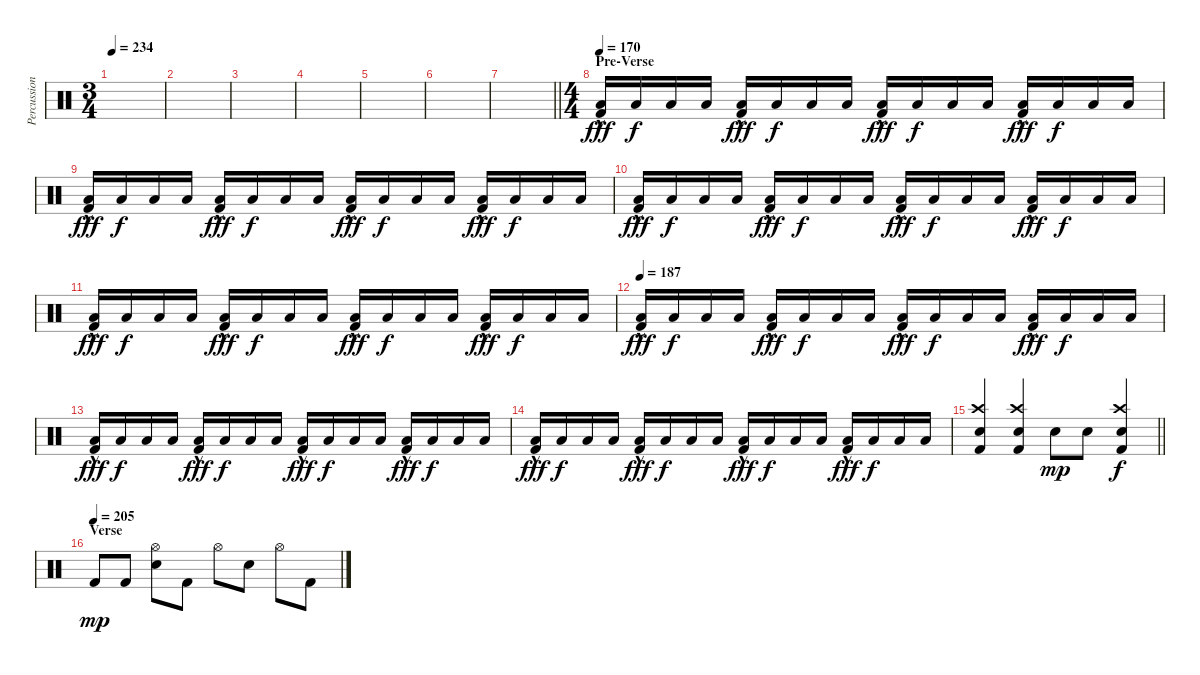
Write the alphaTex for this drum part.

\track ("Percussion" "Percussion") {instrument percussion}
\staff {score}
\articulation defaults
\ts (3 4)
\tempo 234
\clef neutral
\ks c
|
|
|
|
|
|
\barLineRight lightlight
|
\ts (4 4)
\section ("" "Pre-Verse")
\tempo 187
\tempo 170
("Low Tom (hit)"{hac} "Kick (hit) 2").16{dy fff} "Low Tom (hit)".16{dy f} "Low Tom (hit)".16 "Low Tom (hit)".16 ("Low Tom (hit)"{hac} "Kick (hit) 2").16{dy fff} "Low Tom (hit)".16{dy f} "Low Tom (hit)".16 "Low Tom (hit)".16 ("Low Tom (hit)"{hac} "Kick (hit) 2").16{dy fff} "Low Tom (hit)".16{dy f} "Low Tom (hit)".16 "Low Tom (hit)".16 ("Low Tom (hit)"{hac} "Kick (hit) 2").16{dy fff} "Low Tom (hit)".16{dy f} "Low Tom (hit)".16 "Low Tom (hit)".16 |
("Low Tom (hit)"{hac} "Kick (hit) 2").16{dy fff} "Low Tom (hit)".16{dy f} "Low Tom (hit)".16 "Low Tom (hit)".16 ("Low Tom (hit)"{hac} "Kick (hit) 2").16{dy fff} "Low Tom (hit)".16{dy f} "Low Tom (hit)".16 "Low Tom (hit)".16 ("Low Tom (hit)"{hac} "Kick (hit) 2").16{dy fff} "Low Tom (hit)".16{dy f} "Low Tom (hit)".16 "Low Tom (hit)".16 ("Low Tom (hit)"{hac} "Kick (hit) 2").16{dy fff} "Low Tom (hit)".16{dy f} "Low Tom (hit)".16 "Low Tom (hit)".16 |
("Low Tom (hit)"{hac} "Kick (hit) 2").16{dy fff} "Low Tom (hit)".16{dy f} "Low Tom (hit)".16 "Low Tom (hit)".16 ("Low Tom (hit)"{hac} "Kick (hit) 2").16{dy fff} "Low Tom (hit)".16{dy f} "Low Tom (hit)".16 "Low Tom (hit)".16 ("Low Tom (hit)"{hac} "Kick (hit) 2").16{dy fff} "Low Tom (hit)".16{dy f} "Low Tom (hit)".16 "Low Tom (hit)".16 ("Low Tom (hit)"{hac} "Kick (hit) 2").16{dy fff} "Low Tom (hit)".16{dy f} "Low Tom (hit)".16 "Low Tom (hit)".16 |
("Low Tom (hit)"{hac} "Kick (hit) 2").16{dy fff} "Low Tom (hit)".16{dy f} "Low Tom (hit)".16 "Low Tom (hit)".16 ("Low Tom (hit)"{hac} "Kick (hit) 2").16{dy fff} "Low Tom (hit)".16{dy f} "Low Tom (hit)".16 "Low Tom (hit)".16 ("Low Tom (hit)"{hac} "Kick (hit) 2").16{dy fff} "Low Tom (hit)".16{dy f} "Low Tom (hit)".16 "Low Tom (hit)".16 ("Low Tom (hit)"{hac} "Kick (hit) 2").16{dy fff} "Low Tom (hit)".16{dy f} "Low Tom (hit)".16 "Low Tom (hit)".16 |
\tempo 187
("Low Tom (hit)"{hac} "Kick (hit) 2").16{dy fff} "Low Tom (hit)".16{dy f} "Low Tom (hit)".16 "Low Tom (hit)".16 ("Low Tom (hit)"{hac} "Kick (hit) 2").16{dy fff} "Low Tom (hit)".16{dy f} "Low Tom (hit)".16 "Low Tom (hit)".16 ("Low Tom (hit)"{hac} "Kick (hit) 2").16{dy fff} "Low Tom (hit)".16{dy f} "Low Tom (hit)".16 "Low Tom (hit)".16 ("Low Tom (hit)"{hac} "Kick (hit) 2").16{dy fff} "Low Tom (hit)".16{dy f} "Low Tom (hit)".16 "Low Tom (hit)".16 |
("Low Tom (hit)"{hac} "Kick (hit) 2").16{dy fff} "Low Tom (hit)".16{dy f} "Low Tom (hit)".16 "Low Tom (hit)".16 ("Low Tom (hit)"{hac} "Kick (hit) 2").16{dy fff} "Low Tom (hit)".16{dy f} "Low Tom (hit)".16 "Low Tom (hit)".16 ("Low Tom (hit)"{hac} "Kick (hit) 2").16{dy fff} "Low Tom (hit)".16{dy f} "Low Tom (hit)".16 "Low Tom (hit)".16 ("Low Tom (hit)"{hac} "Kick (hit) 2").16{dy fff} "Low Tom (hit)".16{dy f} "Low Tom (hit)".16 "Low Tom (hit)".16 |
("Low Tom (hit)"{hac} "Kick (hit) 2").16{dy fff} "Low Tom (hit)".16{dy f} "Low Tom (hit)".16 "Low Tom (hit)".16 ("Low Tom (hit)"{hac} "Kick (hit) 2").16{dy fff} "Low Tom (hit)".16{dy f} "Low Tom (hit)".16 "Low Tom (hit)".16 ("Low Tom (hit)"{hac} "Kick (hit) 2").16{dy fff} "Low Tom (hit)".16{dy f} "Low Tom (hit)".16 "Low Tom (hit)".16 ("Low Tom (hit)"{hac} "Kick (hit) 2").16{dy fff} "Low Tom (hit)".16{dy f} "Low Tom (hit)".16 "Low Tom (hit)".16 |
\barLineRight lightlight
("Crash high (hit)" "Snare (hit) 2" "Kick (hit) 2").4 ("Crash high (hit)" "Snare (hit) 2" "Kick (hit) 2").4 "Snare (hit) 2".8{dy mp} "Snare (hit) 2".8 ("Crash high (hit)" "Snare (hit) 2" "Kick (hit) 2").4{dy f} |
\section ("" "Verse")
\tempo (205)
"Kick (hit) 2".8{dy mp} "Kick (hit) 2".8 ("Hi-Hat (open)" "Snare (hit) 2").8 "Kick (hit) 2".8 "Hi-Hat (open)".8 "Snare (hit) 2".8 "Hi-Hat (open)".8 "Kick (hit) 2".8
